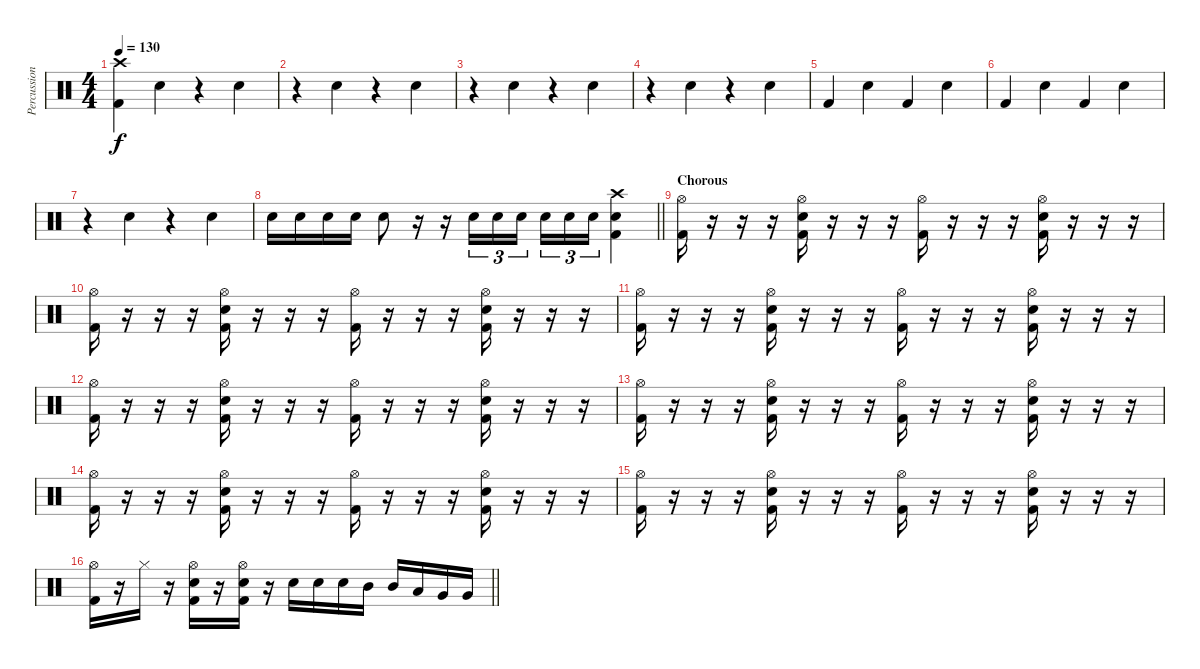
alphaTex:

\track ("Percussion" "Percussion") {instrument percussion}
\staff {score}
\articulation defaults
\ts (4 4)
\tempo 130
\clef neutral
\ks c
("Crash high (hit)" "Kick (hit) 2").4{dy f} "Electric Snare (hit)".4 r.4 "Electric Snare (hit)".4 |
r.4 "Electric Snare (hit)".4 r.4 "Electric Snare (hit)".4 |
r.4 "Electric Snare (hit)".4 r.4 "Electric Snare (hit)".4 |
r.4 "Electric Snare (hit)".4 r.4 "Electric Snare (hit)".4 |
"Kick (hit) 2".4 "Electric Snare (hit)".4 "Kick (hit) 2".4 "Electric Snare (hit)".4 |
"Kick (hit) 2".4 "Electric Snare (hit)".4 "Kick (hit) 2".4 "Electric Snare (hit)".4 |
r.4 "Electric Snare (hit)".4 r.4 "Electric Snare (hit)".4 |
\barLineRight lightlight "Electric Snare (hit)".16 "Electric Snare (hit)".16 "Electric Snare (hit)".16 "Electric Snare (hit)".16 "Electric Snare (hit)".8
r.16 r.16 "Electric Snare (hit)".16{tu (3 2)} "Electric Snare (hit)".16{tu (3 2)} "Electric Snare (hit)".16{tu (3 2) beam splitsecondary} "Electric Snare (hit)".16{tu (3 2)} "Electric Snare (hit)".16{tu (3 2)} "Electric Snare (hit)".16{tu (3 2)} ("Crash high (hit)" "Electric Snare (hit)" "Kick (hit) 2").4 |
\section ("" "Chorous")
("Hi-Hat (open)" "Kick (hit) 2").16 r.16 r.16 r.16 ("Hi-Hat (open)" "Electric Snare (hit)" "Kick (hit) 2").16 r.16 r.16 r.16 ("Hi-Hat (open)" "Kick (hit) 2").16 r.16 r.16 r.16 ("Hi-Hat (open)" "Electric Snare (hit)" "Kick (hit) 2").16 r.16 r.16 r.16 |
("Hi-Hat (open)" "Kick (hit) 2").16 r.16 r.16 r.16 ("Hi-Hat (open)" "Electric Snare (hit)" "Kick (hit) 2").16 r.16 r.16 r.16 ("Hi-Hat (open)" "Kick (hit) 2").16 r.16 r.16 r.16 ("Hi-Hat (open)" "Electric Snare (hit)" "Kick (hit) 2").16 r.16 r.16 r.16 |
("Hi-Hat (open)" "Kick (hit) 2").16 r.16 r.16 r.16 ("Hi-Hat (open)" "Electric Snare (hit)" "Kick (hit) 2").16 r.16 r.16 r.16 ("Hi-Hat (open)" "Kick (hit) 2").16 r.16 r.16 r.16 ("Hi-Hat (open)" "Electric Snare (hit)" "Kick (hit) 2").16 r.16 r.16 r.16 |
("Hi-Hat (open)" "Kick (hit) 2").16 r.16 r.16 r.16 ("Hi-Hat (open)" "Electric Snare (hit)" "Kick (hit) 2").16 r.16 r.16 r.16 ("Hi-Hat (open)" "Kick (hit) 2").16 r.16 r.16 r.16 ("Hi-Hat (open)" "Electric Snare (hit)" "Kick (hit) 2").16 r.16 r.16 r.16 |
("Hi-Hat (open)" "Kick (hit) 2").16 r.16 r.16 r.16 ("Hi-Hat (open)" "Electric Snare (hit)" "Kick (hit) 2").16 r.16 r.16 r.16 ("Hi-Hat (open)" "Kick (hit) 2").16 r.16 r.16 r.16 ("Hi-Hat (open)" "Electric Snare (hit)" "Kick (hit) 2").16 r.16 r.16 r.16 |
("Hi-Hat (open)" "Kick (hit) 2").16 r.16 r.16 r.16 ("Hi-Hat (open)" "Electric Snare (hit)" "Kick (hit) 2").16 r.16 r.16 r.16 ("Hi-Hat (open)" "Kick (hit) 2").16 r.16 r.16 r.16 ("Hi-Hat (open)" "Electric Snare (hit)" "Kick (hit) 2").16 r.16 r.16 r.16 |
("Hi-Hat (open)" "Kick (hit) 2").16 r.16 r.16 r.16 ("Hi-Hat (open)" "Electric Snare (hit)" "Kick (hit) 2").16 r.16 r.16 r.16 ("Hi-Hat (open)" "Kick (hit) 2").16 r.16 r.16 r.16 ("Hi-Hat (open)" "Electric Snare (hit)" "Kick (hit) 2").16 r.16 r.16 r.16 |
\barLineRight lightlight
("Hi-Hat (open)" "Kick (hit) 2").16 r.16 "Hi-Hat (closed)".16 r.16 ("Hi-Hat (open)" "Electric Snare (hit)" "Kick (hit) 2").16 r.16 ("Hi-Hat (open)" "Electric Snare (hit)" "Kick (hit) 2").16 r.16 "Electric Snare (hit)".16 "Electric Snare (hit)".16 "Electric Snare (hit)".16 "Mid Tom (hit)".16 "Mid Tom (hit)".16 "Low Tom (hit)".16 "Very Low Tom (hit)".16 "Very Low Tom (hit)".16
